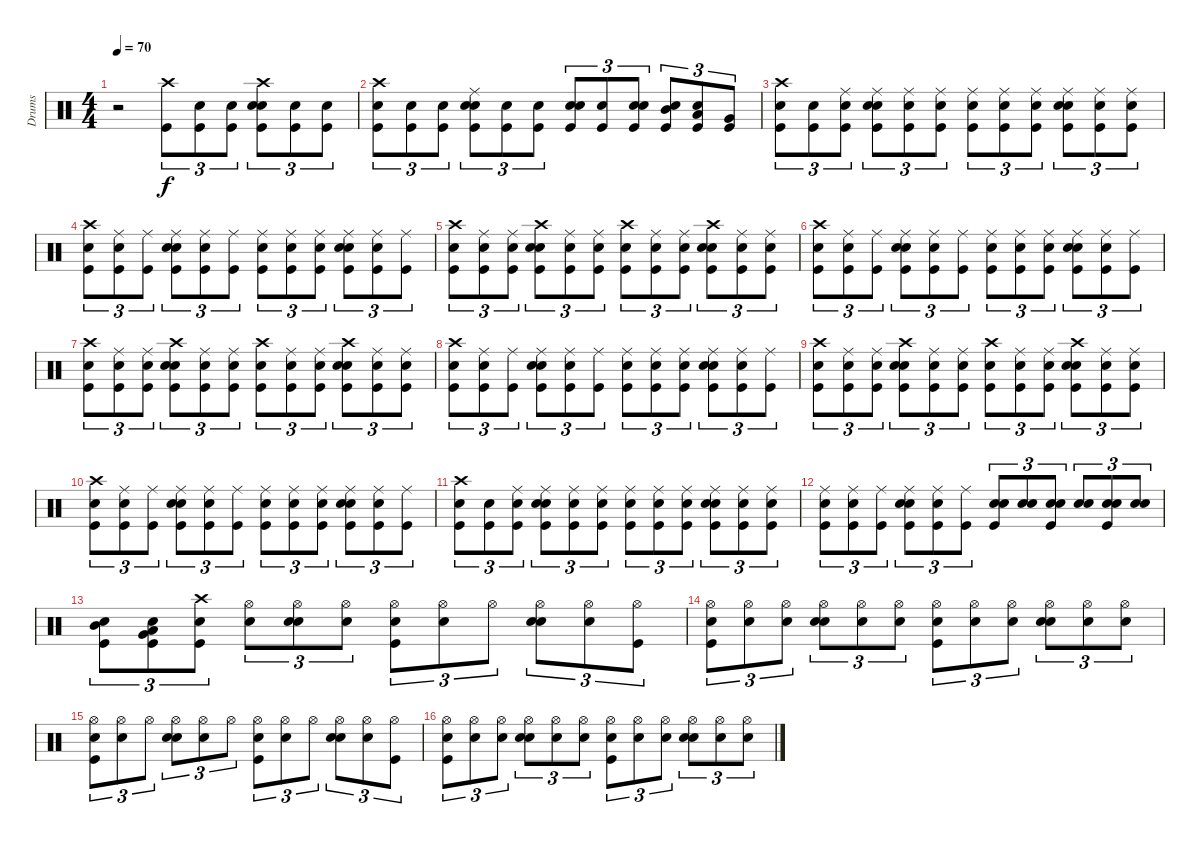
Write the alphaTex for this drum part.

\track ("Drums" "Drums") {instrument percussion}
\staff {score}
\articulation defaults
\ts (4 4)
\tempo 70
\clef neutral
\ks c
r.2{dy f} ("Crash high (hit)" "Kick (hit)").8{tu (3 2)} ("Snare (hit)" "Kick (hit)").8{tu (3 2)} ("Snare (hit)" "Kick (hit)").8{tu (3 2)} ("Snare (hit)" "Kick (hit)" "Snare (hit) 2" "Crash high (hit)").8{tu (3 2)} ("Snare (hit)" "Kick (hit)").8{tu (3 2)} ("Snare (hit)" "Kick (hit)").8{tu (3 2)} |
("Snare (hit)" "Kick (hit)" "Crash high (hit)").8{tu (3 2)} ("Snare (hit)" "Kick (hit)").8{tu (3 2)} ("Snare (hit)" "Kick (hit)").8{tu (3 2)} ("Snare (hit)" "Snare (hit) 2" "Ride (middle)" "Kick (hit)").8{tu (3 2)} ("Snare (hit)" "Kick (hit)").8{tu (3 2)} ("Snare (hit)" "Kick (hit)").8{tu (3 2)} ("Snare (hit)" "Snare (hit) 2" "Kick (hit)").8{tu (3 2)} ("Snare (hit)" "Kick (hit)").8{tu (3 2)} ("Snare (hit)" "Snare (hit) 2" "Kick (hit)").8{tu (3 2)} ("Snare (hit)" "Mid Tom (hit)" "Kick (hit)").8{tu (3 2)} ("Snare (hit)" "Low Tom (hit)" "Kick (hit)").8{tu (3 2)} ("Very Low Tom (hit)" "Kick (hit)").8{tu (3 2)} |
("Snare (hit)" "Crash high (hit)" "Kick (hit)").8{tu (3 2)} ("Snare (hit)" "Kick (hit)").8{tu (3 2)} ("Snare (hit)" "Ride (middle)" "Kick (hit)").8{tu (3 2)} ("Snare (hit)" "Kick (hit)" "Snare (hit) 2" "Ride (middle)").8{tu (3 2)} ("Snare (hit)" "Kick (hit)" "Ride (middle)").8{tu (3 2)} ("Snare (hit)" "Kick (hit)" "Ride (middle)").8{tu (3 2)} ("Snare (hit)" "Kick (hit)" "Ride (middle)").8{tu (3 2)} ("Snare (hit)" "Kick (hit)" "Ride (middle)").8{tu (3 2)} ("Snare (hit)" "Kick (hit)" "Ride (middle)").8{tu (3 2)} ("Snare (hit)" "Ride (middle)" "Snare (hit) 2" "Kick (hit)").8{tu (3 2)} ("Snare (hit)" "Kick (hit)" "Ride (middle)").8{tu (3 2)} ("Snare (hit)" "Kick (hit)" "Ride (middle)").8{tu (3 2)} |
("Snare (hit)" "Crash high (hit)" "Kick (hit)").8{tu (3 2)} ("Snare (hit)" "Ride (middle)" "Kick (hit)").8{tu (3 2)} ("Ride (middle)" "Kick (hit)").8{tu (3 2)} ("Snare (hit)" "Kick (hit)" "Snare (hit) 2" "Ride (middle)").8{tu (3 2)} ("Snare (hit)" "Ride (middle)" "Kick (hit)").8{tu (3 2)} ("Ride (middle)" "Kick (hit)").8{tu (3 2)} ("Snare (hit)" "Ride (middle)" "Kick (hit)").8{tu (3 2)} ("Snare (hit)" "Ride (middle)" "Kick (hit)").8{tu (3 2)} ("Snare (hit)" "Ride (middle)" "Kick (hit)").8{tu (3 2)} ("Snare (hit)" "Kick (hit)" "Snare (hit) 2" "Ride (middle)").8{tu (3 2)} ("Snare (hit)" "Ride (middle)" "Kick (hit)").8{tu (3 2)} ("Ride (middle)" "Kick (hit)").8{tu (3 2)} |
("Snare (hit)" "Crash high (hit)" "Kick (hit)").8{tu (3 2)} ("Snare (hit)" "Kick (hit)" "Ride (middle)").8{tu (3 2)} ("Snare (hit)" "Kick (hit)" "Ride (middle)").8{tu (3 2)} ("Snare (hit)" "Crash high (hit)" "Snare (hit) 2" "Kick (hit)").8{tu (3 2)} ("Snare (hit)" "Kick (hit)" "Ride (middle)").8{tu (3 2)} ("Snare (hit)" "Kick (hit)" "Ride (middle)").8{tu (3 2)} ("Snare (hit)" "Kick (hit)" "Crash high (hit)").8{tu (3 2)} ("Snare (hit)" "Kick (hit)" "Ride (middle)").8{tu (3 2)} ("Snare (hit)" "Kick (hit)" "Ride (middle)").8{tu (3 2)} ("Snare (hit)" "Crash high (hit)" "Snare (hit) 2" "Kick (hit)").8{tu (3 2)} ("Snare (hit)" "Kick (hit)" "Ride (middle)").8{tu (3 2)} ("Snare (hit)" "Kick (hit)" "Ride (middle)").8{tu (3 2)} |
("Snare (hit)" "Crash high (hit)" "Kick (hit)").8{tu (3 2)} ("Snare (hit)" "Ride (middle)" "Kick (hit)").8{tu (3 2)} ("Ride (middle)" "Kick (hit)").8{tu (3 2)} ("Snare (hit)" "Kick (hit)" "Snare (hit) 2" "Ride (middle)").8{tu (3 2)} ("Snare (hit)" "Ride (middle)" "Kick (hit)").8{tu (3 2)} ("Ride (middle)" "Kick (hit)").8{tu (3 2)} ("Snare (hit)" "Ride (middle)" "Kick (hit)").8{tu (3 2)} ("Snare (hit)" "Ride (middle)" "Kick (hit)").8{tu (3 2)} ("Snare (hit)" "Ride (middle)" "Kick (hit)").8{tu (3 2)} ("Snare (hit)" "Kick (hit)" "Snare (hit) 2" "Ride (middle)").8{tu (3 2)} ("Snare (hit)" "Ride (middle)" "Kick (hit)").8{tu (3 2)} ("Ride (middle)" "Kick (hit)").8{tu (3 2)} |
("Snare (hit)" "Crash high (hit)" "Kick (hit)").8{tu (3 2)} ("Snare (hit)" "Kick (hit)" "Ride (middle)").8{tu (3 2)} ("Snare (hit)" "Kick (hit)" "Ride (middle)").8{tu (3 2)} ("Snare (hit)" "Crash high (hit)" "Snare (hit) 2" "Kick (hit)").8{tu (3 2)} ("Snare (hit)" "Kick (hit)" "Ride (middle)").8{tu (3 2)} ("Snare (hit)" "Kick (hit)" "Ride (middle)").8{tu (3 2)} ("Snare (hit)" "Kick (hit)" "Crash high (hit)").8{tu (3 2)} ("Snare (hit)" "Kick (hit)" "Ride (middle)").8{tu (3 2)} ("Snare (hit)" "Kick (hit)" "Ride (middle)").8{tu (3 2)} ("Snare (hit)" "Crash high (hit)" "Snare (hit) 2" "Kick (hit)").8{tu (3 2)} ("Snare (hit)" "Kick (hit)" "Ride (middle)").8{tu (3 2)} ("Snare (hit)" "Kick (hit)" "Ride (middle)").8{tu (3 2)} |
("Snare (hit)" "Crash high (hit)" "Kick (hit)").8{tu (3 2)} ("Snare (hit)" "Ride (middle)" "Kick (hit)").8{tu (3 2)} ("Ride (middle)" "Kick (hit)").8{tu (3 2)} ("Snare (hit)" "Kick (hit)" "Snare (hit) 2" "Ride (middle)").8{tu (3 2)} ("Snare (hit)" "Ride (middle)" "Kick (hit)").8{tu (3 2)} ("Ride (middle)" "Kick (hit)").8{tu (3 2)} ("Snare (hit)" "Ride (middle)" "Kick (hit)").8{tu (3 2)} ("Snare (hit)" "Ride (middle)" "Kick (hit)").8{tu (3 2)} ("Snare (hit)" "Ride (middle)" "Kick (hit)").8{tu (3 2)} ("Snare (hit)" "Kick (hit)" "Snare (hit) 2" "Ride (middle)").8{tu (3 2)} ("Snare (hit)" "Ride (middle)" "Kick (hit)").8{tu (3 2)} ("Ride (middle)" "Kick (hit)").8{tu (3 2)} |
("Snare (hit)" "Crash high (hit)" "Kick (hit)").8{tu (3 2)} ("Snare (hit)" "Kick (hit)" "Ride (middle)").8{tu (3 2)} ("Snare (hit)" "Kick (hit)" "Ride (middle)").8{tu (3 2)} ("Snare (hit)" "Crash high (hit)" "Snare (hit) 2" "Kick (hit)").8{tu (3 2)} ("Snare (hit)" "Kick (hit)" "Ride (middle)").8{tu (3 2)} ("Snare (hit)" "Kick (hit)" "Ride (middle)").8{tu (3 2)} ("Snare (hit)" "Kick (hit)" "Crash high (hit)").8{tu (3 2)} ("Snare (hit)" "Kick (hit)" "Ride (middle)").8{tu (3 2)} ("Snare (hit)" "Kick (hit)" "Ride (middle)").8{tu (3 2)} ("Snare (hit)" "Crash high (hit)" "Snare (hit) 2" "Kick (hit)").8{tu (3 2)} ("Snare (hit)" "Kick (hit)" "Ride (middle)").8{tu (3 2)} ("Snare (hit)" "Kick (hit)" "Ride (middle)").8{tu (3 2)} |
("Snare (hit)" "Crash high (hit)" "Kick (hit)").8{tu (3 2)} ("Snare (hit)" "Ride (middle)" "Kick (hit)").8{tu (3 2)} ("Ride (middle)" "Kick (hit)").8{tu (3 2)} ("Snare (hit)" "Kick (hit)" "Snare (hit) 2" "Ride (middle)").8{tu (3 2)} ("Snare (hit)" "Ride (middle)" "Kick (hit)").8{tu (3 2)} ("Ride (middle)" "Kick (hit)").8{tu (3 2)} ("Snare (hit)" "Ride (middle)" "Kick (hit)").8{tu (3 2)} ("Snare (hit)" "Ride (middle)" "Kick (hit)").8{tu (3 2)} ("Snare (hit)" "Ride (middle)" "Kick (hit)").8{tu (3 2)} ("Snare (hit)" "Kick (hit)" "Snare (hit) 2" "Ride (middle)").8{tu (3 2)} ("Snare (hit)" "Ride (middle)" "Kick (hit)").8{tu (3 2)} ("Ride (middle)" "Kick (hit)").8{tu (3 2)} |
("Snare (hit)" "Crash high (hit)" "Kick (hit)").8{tu (3 2)} ("Snare (hit)" "Kick (hit)").8{tu (3 2)} ("Snare (hit)" "Ride (middle)" "Kick (hit)").8{tu (3 2)} ("Snare (hit)" "Kick (hit)" "Ride (middle)" "Snare (hit) 2").8{tu (3 2)} ("Snare (hit)" "Kick (hit)" "Ride (middle)").8{tu (3 2)} ("Snare (hit)" "Kick (hit)" "Ride (middle)").8{tu (3 2)} ("Snare (hit)" "Kick (hit)" "Ride (middle)").8{tu (3 2)} ("Snare (hit)" "Kick (hit)" "Ride (middle)").8{tu (3 2)} ("Snare (hit)" "Kick (hit)" "Ride (middle)").8{tu (3 2)} ("Snare (hit)" "Snare (hit) 2" "Kick (hit)" "Ride (middle)").8{tu (3 2)} ("Snare (hit)" "Kick (hit)" "Ride (middle)").8{tu (3 2)} ("Snare (hit)" "Kick (hit)" "Ride (middle)").8{tu (3 2)} |
("Snare (hit)" "Ride (middle)" "Kick (hit)").8{tu (3 2)} ("Snare (hit)" "Ride (middle)" "Kick (hit)").8{tu (3 2)} ("Ride (middle)" "Kick (hit)").8{tu (3 2)} ("Snare (hit)" "Kick (hit)" "Snare (hit) 2" "Ride (middle)").8{tu (3 2)} ("Snare (hit)" "Ride (middle)" "Kick (hit)").8{tu (3 2)} ("Ride (middle)" "Kick (hit)").8{tu (3 2)} ("Snare (hit)" "Snare (hit) 2" "Kick (hit)").8{tu (3 2)} ("Snare (hit)" "Snare (hit) 2").8{tu (3 2)} ("Snare (hit)" "Kick (hit)" "Snare (hit) 2").8{tu (3 2)} ("Snare (hit)" "Snare (hit) 2").8{tu (3 2)} ("Snare (hit)" "Snare (hit) 2" "Kick (hit)").8{tu (3 2)} ("Snare (hit)" "Snare (hit) 2").8{tu (3 2)} |
("Snare (hit)" "Mid Tom (hit)" "Kick (hit)").8{tu (3 2)} ("Snare (hit)" "Kick (hit)" "Very Low Tom (hit)" "Low Tom (hit)").8{tu (3 2)} ("Snare (hit)" "Kick (hit)" "Crash high (hit)").8{tu (3 2)} ("Snare (hit)" "Hi-Hat (open)").8{tu (3 2)} ("Snare (hit)" "Hi-Hat (open)" "Snare (hit) 2").8{tu (3 2)} ("Snare (hit)" "Hi-Hat (open)").8{tu (3 2)} ("Snare (hit)" "Hi-Hat (open)" "Kick (hit)").8{tu (3 2)} ("Snare (hit)" "Hi-Hat (open)").8{tu (3 2)} "Hi-Hat (open)".8{tu (3 2)} ("Snare (hit)" "Hi-Hat (open)" "Snare (hit) 2").8{tu (3 2)} ("Snare (hit)" "Hi-Hat (open)").8{tu (3 2)} ("Hi-Hat (open)" "Kick (hit)").8{tu (3 2)} |
("Snare (hit)" "Hi-Hat (open)" "Kick (hit)").8{tu (3 2)} ("Snare (hit)" "Hi-Hat (open)").8{tu (3 2)} ("Snare (hit)" "Hi-Hat (open)").8{tu (3 2)} ("Snare (hit)" "Snare (hit) 2" "Hi-Hat (open)").8{tu (3 2)} ("Snare (hit)" "Hi-Hat (open)").8{tu (3 2)} ("Snare (hit)" "Hi-Hat (open)").8{tu (3 2)} ("Snare (hit)" "Kick (hit)" "Hi-Hat (open)").8{tu (3 2)} ("Snare (hit)" "Hi-Hat (open)").8{tu (3 2)} ("Snare (hit)" "Hi-Hat (open)").8{tu (3 2)} ("Snare (hit)" "Snare (hit) 2" "Hi-Hat (open)").8{tu (3 2)} ("Snare (hit)" "Hi-Hat (open)").8{tu (3 2)} ("Snare (hit)" "Hi-Hat (open)").8{tu (3 2)} |
("Snare (hit)" "Kick (hit)" "Hi-Hat (open)").8{tu (3 2)} ("Snare (hit)" "Hi-Hat (open)").8{tu (3 2)} "Hi-Hat (open)".8{tu (3 2)} ("Snare (hit)" "Hi-Hat (open)" "Snare (hit) 2").8{tu (3 2)} ("Snare (hit)" "Hi-Hat (open)").8{tu (3 2)} "Hi-Hat (open)".8{tu (3 2)} ("Snare (hit)" "Hi-Hat (open)" "Kick (hit)").8{tu (3 2)} ("Snare (hit)" "Hi-Hat (open)").8{tu (3 2)} "Hi-Hat (open)".8{tu (3 2)} ("Snare (hit)" "Hi-Hat (open)" "Snare (hit) 2").8{tu (3 2)} ("Snare (hit)" "Hi-Hat (open)").8{tu (3 2)} ("Hi-Hat (open)" "Kick (hit)").8{tu (3 2)} |
("Snare (hit)" "Kick (hit)" "Hi-Hat (open)").8{tu (3 2)} ("Snare (hit)" "Hi-Hat (open)").8{tu (3 2)} ("Snare (hit)" "Hi-Hat (open)").8{tu (3 2)} ("Snare (hit)" "Snare (hit) 2" "Hi-Hat (open)").8{tu (3 2)} ("Snare (hit)" "Hi-Hat (open)").8{tu (3 2)} ("Snare (hit)" "Hi-Hat (open)").8{tu (3 2)} ("Snare (hit)" "Kick (hit)" "Hi-Hat (open)").8{tu (3 2)} ("Snare (hit)" "Hi-Hat (open)").8{tu (3 2)} ("Snare (hit)" "Hi-Hat (open)").8{tu (3 2)} ("Snare (hit)" "Snare (hit) 2" "Hi-Hat (open)").8{tu (3 2)} ("Snare (hit)" "Hi-Hat (open)").8{tu (3 2)} ("Snare (hit)" "Hi-Hat (open)").8{tu (3 2)}
